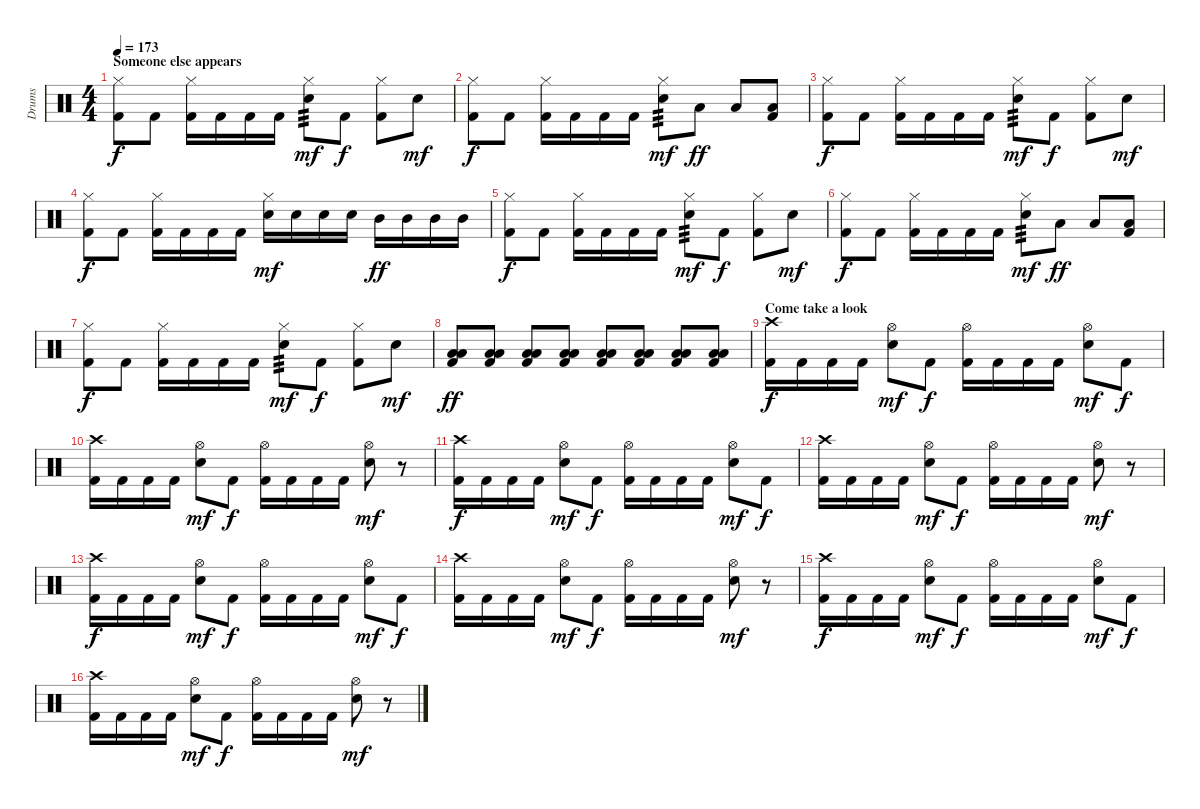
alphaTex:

\track ("Drums" "Drums") {instrument percussion}
\staff {score}
\articulation defaults
\ts (4 4)
\section ("" "Someone else appears")
\tempo 173
\clef neutral
\ks c
("Hi-Hat (closed)" "Kick (hit) 2").8{dy f} "Kick (hit) 2".8 ("Hi-Hat (closed)" "Kick (hit) 2").16 "Kick (hit) 2".16 "Kick (hit) 2".16 "Kick (hit) 2".16 ("Hi-Hat (closed)" "Snare (hit) 2").8{tp 3 dy mf} "Kick (hit) 2".8{dy f} ("Hi-Hat (closed)" "Kick (hit) 2").8 "Snare (hit) 2".8{dy mf} |
("Hi-Hat (closed)" "Kick (hit) 2").8{dy f} "Kick (hit) 2".8 ("Hi-Hat (closed)" "Kick (hit) 2").16 "Kick (hit) 2".16 "Kick (hit) 2".16 "Kick (hit) 2".16 ("Hi-Hat (closed)" "Snare (hit) 2").8{tp 3 dy mf} "Low Tom (hit)".8{dy ff} "Low Tom (hit)".8 ("Low Tom (hit)" "Kick (hit) 2").8 |
("Hi-Hat (closed)" "Kick (hit) 2").8{dy f} "Kick (hit) 2".8 ("Hi-Hat (closed)" "Kick (hit) 2").16 "Kick (hit) 2".16 "Kick (hit) 2".16 "Kick (hit) 2".16 ("Hi-Hat (closed)" "Snare (hit) 2").8{tp 3 dy mf} "Kick (hit) 2".8{dy f} ("Hi-Hat (closed)" "Kick (hit) 2").8 "Snare (hit) 2".8{dy mf} |
("Hi-Hat (closed)" "Kick (hit) 2").8{dy f} "Kick (hit) 2".8 ("Hi-Hat (closed)" "Kick (hit) 2").16 "Kick (hit) 2".16 "Kick (hit) 2".16 "Kick (hit) 2".16 ("Hi-Hat (closed)" "Snare (hit) 2").16{dy mf} "Snare (hit) 2".16 "Snare (hit) 2".16 "Snare (hit) 2".16 "Mid Tom (hit)".16{dy ff} "Mid Tom (hit)".16 "Mid Tom (hit)".16 "Mid Tom (hit)".16 |
("Hi-Hat (closed)" "Kick (hit) 2").8{dy f} "Kick (hit) 2".8 ("Hi-Hat (closed)" "Kick (hit) 2").16 "Kick (hit) 2".16 "Kick (hit) 2".16 "Kick (hit) 2".16 ("Hi-Hat (closed)" "Snare (hit) 2").8{tp 3 dy mf} "Kick (hit) 2".8{dy f} ("Hi-Hat (closed)" "Kick (hit) 2").8 "Snare (hit) 2".8{dy mf} |
("Hi-Hat (closed)" "Kick (hit) 2").8{dy f} "Kick (hit) 2".8 ("Hi-Hat (closed)" "Kick (hit) 2").16 "Kick (hit) 2".16 "Kick (hit) 2".16 "Kick (hit) 2".16 ("Hi-Hat (closed)" "Snare (hit) 2").8{tp 3 dy mf} "Low Tom (hit)".8{dy ff} "Low Tom (hit)".8 ("Low Tom (hit)" "Kick (hit) 2").8 |
("Hi-Hat (closed)" "Kick (hit) 2").8{dy f} "Kick (hit) 2".8 ("Hi-Hat (closed)" "Kick (hit) 2").16 "Kick (hit) 2".16 "Kick (hit) 2".16 "Kick (hit) 2".16 ("Hi-Hat (closed)" "Snare (hit) 2").8{tp 3 dy mf} "Kick (hit) 2".8{dy f} ("Hi-Hat (closed)" "Kick (hit) 2").8 "Snare (hit) 2".8{dy mf} |
("Kick (hit) 2" "Low Tom (hit)" "Low Floor Tom (hit)").8{dy ff} ("Kick (hit) 2" "Low Tom (hit)" "Low Floor Tom (hit)").8 ("Kick (hit) 2" "Low Tom (hit)" "Low Floor Tom (hit)").8 ("Kick (hit) 2" "Low Tom (hit)" "Low Floor Tom (hit)").8 ("Kick (hit) 2" "Low Tom (hit)" "Low Floor Tom (hit)").8 ("Kick (hit) 2" "Low Tom (hit)" "Low Floor Tom (hit)").8 ("Kick (hit) 2" "Low Tom (hit)" "Low Floor Tom (hit)").8 ("Kick (hit) 2" "Low Tom (hit)" "Low Floor Tom (hit)").8 |
\section ("" "Come take a look")
("Crash high (hit)" "Kick (hit) 2").16{dy f} "Kick (hit) 2".16 "Kick (hit) 2".16 "Kick (hit) 2".16 ("Hi-Hat (open)" "Snare (hit) 2").8{dy mf} "Kick (hit) 2".8{dy f} ("Hi-Hat (open)" "Kick (hit) 2").16 "Kick (hit) 2".16 "Kick (hit) 2".16 "Kick (hit) 2".16 ("Hi-Hat (open)" "Snare (hit) 2").8{dy mf} "Kick (hit) 2".8{dy f} |
("Crash high (hit)" "Kick (hit) 2").16 "Kick (hit) 2".16 "Kick (hit) 2".16 "Kick (hit) 2".16 ("Hi-Hat (open)" "Snare (hit) 2").8{dy mf} "Kick (hit) 2".8{dy f} ("Hi-Hat (open)" "Kick (hit) 2").16 "Kick (hit) 2".16 "Kick (hit) 2".16 "Kick (hit) 2".16 ("Hi-Hat (open)" "Snare (hit) 2").8{dy mf} r.8 |
("Crash high (hit)" "Kick (hit) 2").16{dy f} "Kick (hit) 2".16 "Kick (hit) 2".16 "Kick (hit) 2".16 ("Hi-Hat (open)" "Snare (hit) 2").8{dy mf} "Kick (hit) 2".8{dy f} ("Hi-Hat (open)" "Kick (hit) 2").16 "Kick (hit) 2".16 "Kick (hit) 2".16 "Kick (hit) 2".16 ("Hi-Hat (open)" "Snare (hit) 2").8{dy mf} "Kick (hit) 2".8{dy f} |
("Crash high (hit)" "Kick (hit) 2").16 "Kick (hit) 2".16 "Kick (hit) 2".16 "Kick (hit) 2".16 ("Hi-Hat (open)" "Snare (hit) 2").8{dy mf} "Kick (hit) 2".8{dy f} ("Hi-Hat (open)" "Kick (hit) 2").16 "Kick (hit) 2".16 "Kick (hit) 2".16 "Kick (hit) 2".16 ("Hi-Hat (open)" "Snare (hit) 2").8{dy mf} r.8 |
("Crash high (hit)" "Kick (hit) 2").16{dy f} "Kick (hit) 2".16 "Kick (hit) 2".16 "Kick (hit) 2".16 ("Hi-Hat (open)" "Snare (hit) 2").8{dy mf} "Kick (hit) 2".8{dy f} ("Hi-Hat (open)" "Kick (hit) 2").16 "Kick (hit) 2".16 "Kick (hit) 2".16 "Kick (hit) 2".16 ("Hi-Hat (open)" "Snare (hit) 2").8{dy mf} "Kick (hit) 2".8{dy f} |
("Crash high (hit)" "Kick (hit) 2").16 "Kick (hit) 2".16 "Kick (hit) 2".16 "Kick (hit) 2".16 ("Hi-Hat (open)" "Snare (hit) 2").8{dy mf} "Kick (hit) 2".8{dy f} ("Hi-Hat (open)" "Kick (hit) 2").16 "Kick (hit) 2".16 "Kick (hit) 2".16 "Kick (hit) 2".16 ("Hi-Hat (open)" "Snare (hit) 2").8{dy mf} r.8 |
("Crash high (hit)" "Kick (hit) 2").16{dy f} "Kick (hit) 2".16 "Kick (hit) 2".16 "Kick (hit) 2".16 ("Hi-Hat (open)" "Snare (hit) 2").8{dy mf} "Kick (hit) 2".8{dy f} ("Hi-Hat (open)" "Kick (hit) 2").16 "Kick (hit) 2".16 "Kick (hit) 2".16 "Kick (hit) 2".16 ("Hi-Hat (open)" "Snare (hit) 2").8{dy mf} "Kick (hit) 2".8{dy f} |
("Crash high (hit)" "Kick (hit) 2").16 "Kick (hit) 2".16 "Kick (hit) 2".16 "Kick (hit) 2".16 ("Hi-Hat (open)" "Snare (hit) 2").8{dy mf} "Kick (hit) 2".8{dy f} ("Hi-Hat (open)" "Kick (hit) 2").16 "Kick (hit) 2".16 "Kick (hit) 2".16 "Kick (hit) 2".16 ("Hi-Hat (open)" "Snare (hit) 2").8{dy mf} r.8
